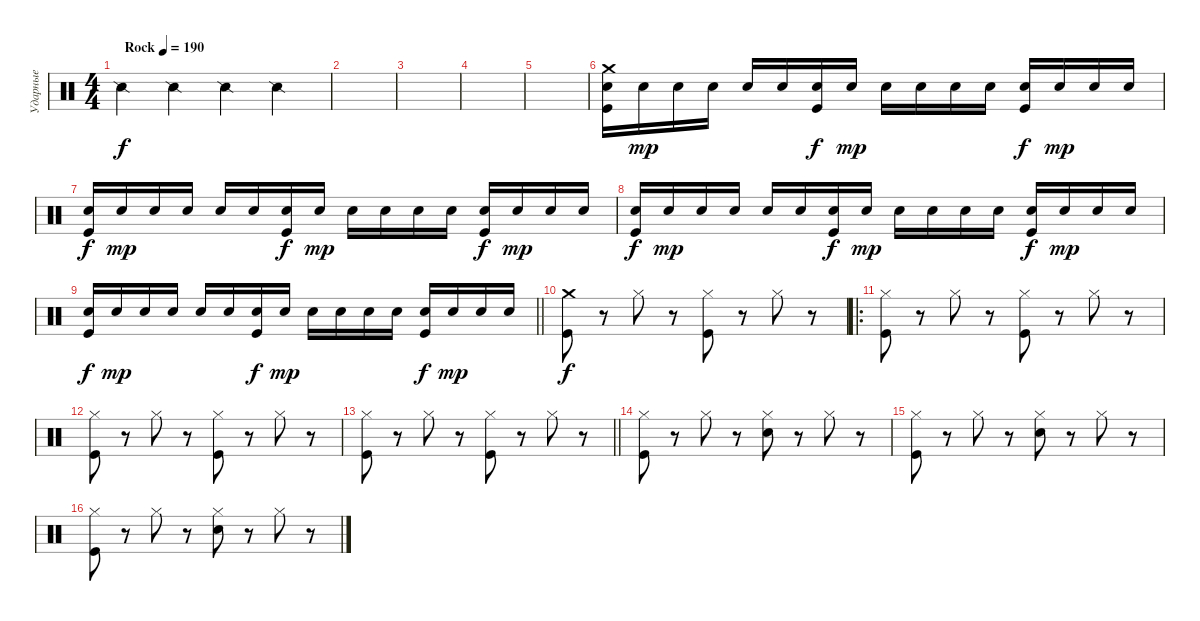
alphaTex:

\track ("Ударные" "Ударные") {instrument percussion}
\staff {score}
\articulation defaults
\ts (4 4)
\tempo (190 "Rock")
\clef neutral
\ks c "Snare (side stick) 2".4{dy f} "Snare (side stick) 2".4 "Snare (side stick) 2".4 "Snare (side stick) 2".4
|
|
|
|
|
("Crash medium (hit)" "Electric Snare (hit)" "Kick (hit)").16 "Electric Snare (hit)".16{dy mp} "Electric Snare (hit)".16 "Electric Snare (hit)".16 "Electric Snare (hit)".16 "Electric Snare (hit)".16 ("Electric Snare (hit)" "Kick (hit)").16{dy f} "Electric Snare (hit)".16{dy mp} "Electric Snare (hit)".16 "Electric Snare (hit)".16 "Electric Snare (hit)".16 "Electric Snare (hit)".16 ("Electric Snare (hit)" "Kick (hit)").16{dy f} "Electric Snare (hit)".16{dy mp} "Electric Snare (hit)".16 "Electric Snare (hit)".16 |
("Electric Snare (hit)" "Kick (hit)").16{dy f} "Electric Snare (hit)".16{dy mp} "Electric Snare (hit)".16 "Electric Snare (hit)".16 "Electric Snare (hit)".16 "Electric Snare (hit)".16 ("Electric Snare (hit)" "Kick (hit)").16{dy f} "Electric Snare (hit)".16{dy mp} "Electric Snare (hit)".16 "Electric Snare (hit)".16 "Electric Snare (hit)".16 "Electric Snare (hit)".16 ("Electric Snare (hit)" "Kick (hit)").16{dy f} "Electric Snare (hit)".16{dy mp} "Electric Snare (hit)".16 "Electric Snare (hit)".16 |
("Electric Snare (hit)" "Kick (hit)").16{dy f} "Electric Snare (hit)".16{dy mp} "Electric Snare (hit)".16 "Electric Snare (hit)".16 "Electric Snare (hit)".16 "Electric Snare (hit)".16 ("Electric Snare (hit)" "Kick (hit)").16{dy f} "Electric Snare (hit)".16{dy mp} "Electric Snare (hit)".16 "Electric Snare (hit)".16 "Electric Snare (hit)".16 "Electric Snare (hit)".16 ("Electric Snare (hit)" "Kick (hit)").16{dy f} "Electric Snare (hit)".16{dy mp} "Electric Snare (hit)".16 "Electric Snare (hit)".16 |
\barLineRight lightlight
("Electric Snare (hit)" "Kick (hit)").16{dy f} "Electric Snare (hit)".16{dy mp} "Electric Snare (hit)".16 "Electric Snare (hit)".16 "Electric Snare (hit)".16 "Electric Snare (hit)".16 ("Electric Snare (hit)" "Kick (hit)").16{dy f} "Electric Snare (hit)".16{dy mp} "Electric Snare (hit)".16 "Electric Snare (hit)".16 "Electric Snare (hit)".16 "Electric Snare (hit)".16 ("Electric Snare (hit)" "Kick (hit)").16{dy f} "Electric Snare (hit)".16{dy mp} "Electric Snare (hit)".16 "Electric Snare (hit)".16 |
("Crash medium (hit)" "Kick (hit)").8{dy f} r.8 "Hi-Hat (closed)".8 r.8 ("Hi-Hat (closed)" "Kick (hit)").8 r.8 "Hi-Hat (closed)".8 r.8 |
\ro
("Hi-Hat (closed)" "Kick (hit)").8 r.8 "Hi-Hat (closed)".8 r.8 ("Hi-Hat (closed)" "Kick (hit)").8 r.8 "Hi-Hat (closed)".8 r.8 |
("Hi-Hat (closed)" "Kick (hit)").8 r.8 "Hi-Hat (closed)".8 r.8 ("Hi-Hat (closed)" "Kick (hit)").8 r.8 "Hi-Hat (closed)".8 r.8 |
\barLineRight lightlight
("Hi-Hat (closed)" "Kick (hit)").8 r.8 "Hi-Hat (closed)".8 r.8 ("Hi-Hat (closed)" "Kick (hit)").8 r.8 "Hi-Hat (closed)".8 r.8 |
("Hi-Hat (closed)" "Kick (hit)").8 r.8 "Hi-Hat (closed)".8 r.8 ("Hi-Hat (closed)" "Electric Snare (hit)").8 r.8 "Hi-Hat (closed)".8 r.8 |
("Hi-Hat (closed)" "Kick (hit)").8 r.8 "Hi-Hat (closed)".8 r.8 ("Hi-Hat (closed)" "Electric Snare (hit)").8 r.8 "Hi-Hat (closed)".8 r.8 |
("Hi-Hat (closed)" "Kick (hit)").8 r.8 "Hi-Hat (closed)".8 r.8 ("Hi-Hat (closed)" "Electric Snare (hit)").8 r.8 "Hi-Hat (closed)".8 r.8
